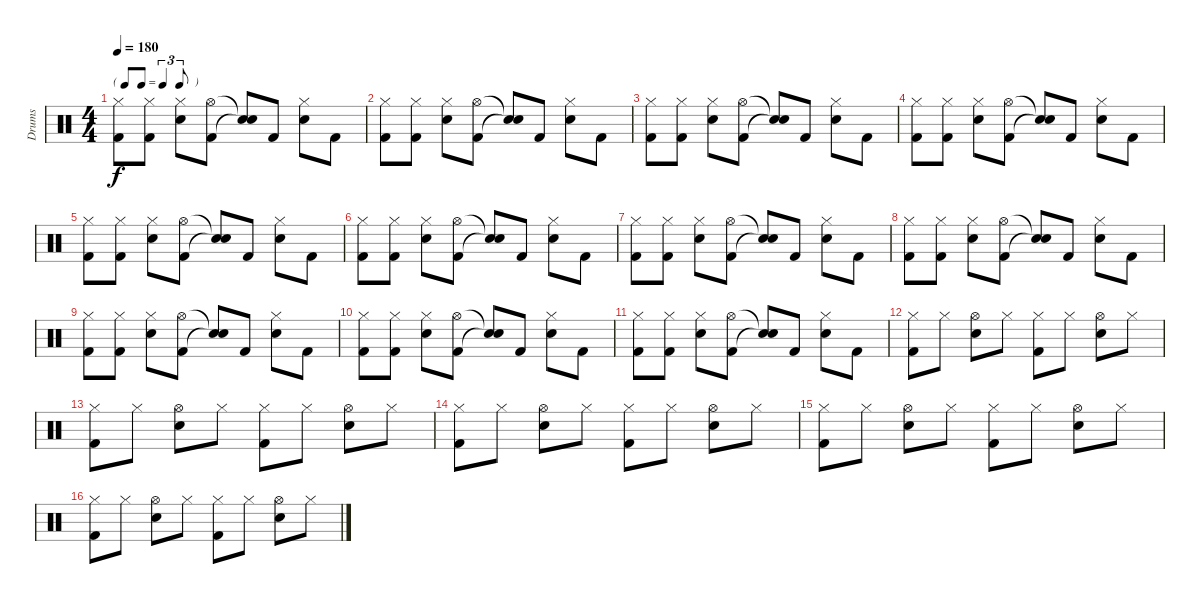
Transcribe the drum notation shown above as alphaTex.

\track ("Drums" "Drums") {instrument percussion}
\staff {score}
\articulation defaults
\ts (4 4)
\tf triplet8th
\tempo 180
\clef neutral
\ks c
("Hi-Hat (closed)" "Kick (hit) 2").8{dy f} ("Hi-Hat (closed)" "Kick (hit) 2").8 ("Hi-Hat (closed)" "Electric Snare (hit)").8 ("Hi-Hat (open)" "Kick (hit) 2").8 ("Snare (hit)"{t} "Snare (hit)"{t}).8 "Kick (hit) 2".8 ("Hi-Hat (closed)" "Electric Snare (hit)").8 "Kick (hit) 2".8 |
("Hi-Hat (closed)" "Kick (hit) 2").8 ("Hi-Hat (closed)" "Kick (hit) 2").8 ("Hi-Hat (closed)" "Electric Snare (hit)").8 ("Hi-Hat (open)" "Kick (hit) 2").8 ("Snare (hit)"{t} "Snare (hit)"{t}).8 "Kick (hit) 2".8 ("Hi-Hat (closed)" "Electric Snare (hit)").8 "Kick (hit) 2".8 |
("Hi-Hat (closed)" "Kick (hit) 2").8 ("Hi-Hat (closed)" "Kick (hit) 2").8 ("Hi-Hat (closed)" "Electric Snare (hit)").8 ("Hi-Hat (open)" "Kick (hit) 2").8 ("Snare (hit)"{t} "Snare (hit)"{t}).8 "Kick (hit) 2".8 ("Hi-Hat (closed)" "Electric Snare (hit)").8 "Kick (hit) 2".8 |
("Hi-Hat (closed)" "Kick (hit) 2").8 ("Hi-Hat (closed)" "Kick (hit) 2").8 ("Hi-Hat (closed)" "Electric Snare (hit)").8 ("Hi-Hat (open)" "Kick (hit) 2").8 ("Snare (hit)"{t} "Snare (hit)"{t}).8 "Kick (hit) 2".8 ("Hi-Hat (closed)" "Electric Snare (hit)").8 "Kick (hit) 2".8 |
("Hi-Hat (closed)" "Kick (hit) 2").8 ("Hi-Hat (closed)" "Kick (hit) 2").8 ("Hi-Hat (closed)" "Electric Snare (hit)").8 ("Hi-Hat (open)" "Kick (hit) 2").8 ("Snare (hit)"{t} "Snare (hit)"{t}).8 "Kick (hit) 2".8 ("Hi-Hat (closed)" "Electric Snare (hit)").8 "Kick (hit) 2".8 |
("Hi-Hat (closed)" "Kick (hit) 2").8 ("Hi-Hat (closed)" "Kick (hit) 2").8 ("Hi-Hat (closed)" "Electric Snare (hit)").8 ("Hi-Hat (open)" "Kick (hit) 2").8 ("Snare (hit)"{t} "Snare (hit)"{t}).8 "Kick (hit) 2".8 ("Hi-Hat (closed)" "Electric Snare (hit)").8 "Kick (hit) 2".8 |
("Hi-Hat (closed)" "Kick (hit) 2").8 ("Hi-Hat (closed)" "Kick (hit) 2").8 ("Hi-Hat (closed)" "Electric Snare (hit)").8 ("Hi-Hat (open)" "Kick (hit) 2").8 ("Snare (hit)"{t} "Snare (hit)"{t}).8 "Kick (hit) 2".8 ("Hi-Hat (closed)" "Electric Snare (hit)").8 "Kick (hit) 2".8 |
("Hi-Hat (closed)" "Kick (hit) 2").8 ("Hi-Hat (closed)" "Kick (hit) 2").8 ("Hi-Hat (closed)" "Electric Snare (hit)").8 ("Hi-Hat (open)" "Kick (hit) 2").8 ("Snare (hit)"{t} "Snare (hit)"{t}).8 "Kick (hit) 2".8 ("Hi-Hat (closed)" "Electric Snare (hit)").8 "Kick (hit) 2".8 |
("Hi-Hat (closed)" "Kick (hit) 2").8 ("Hi-Hat (closed)" "Kick (hit) 2").8 ("Hi-Hat (closed)" "Electric Snare (hit)").8 ("Hi-Hat (open)" "Kick (hit) 2").8 ("Snare (hit)"{t} "Snare (hit)"{t}).8 "Kick (hit) 2".8 ("Hi-Hat (closed)" "Electric Snare (hit)").8 "Kick (hit) 2".8 |
("Hi-Hat (closed)" "Kick (hit) 2").8 ("Hi-Hat (closed)" "Kick (hit) 2").8 ("Hi-Hat (closed)" "Electric Snare (hit)").8 ("Hi-Hat (open)" "Kick (hit) 2").8 ("Snare (hit)"{t} "Snare (hit)"{t}).8 "Kick (hit) 2".8 ("Hi-Hat (closed)" "Electric Snare (hit)").8 "Kick (hit) 2".8 |
("Hi-Hat (closed)" "Kick (hit) 2").8 ("Hi-Hat (closed)" "Kick (hit) 2").8 ("Hi-Hat (closed)" "Electric Snare (hit)").8 ("Hi-Hat (open)" "Kick (hit) 2").8 ("Snare (hit)"{t} "Snare (hit)"{t}).8 "Kick (hit) 2".8 ("Hi-Hat (closed)" "Electric Snare (hit)").8 "Kick (hit) 2".8 |
("Hi-Hat (closed)" "Kick (hit) 2").8 "Hi-Hat (closed)".8 ("Hi-Hat (open)" "Snare (hit) 2").8 "Hi-Hat (closed)".8 ("Hi-Hat (closed)" "Kick (hit) 2").8 "Hi-Hat (closed)".8 ("Hi-Hat (open)" "Snare (hit) 2").8 "Hi-Hat (closed)".8 |
("Hi-Hat (closed)" "Kick (hit) 2").8 "Hi-Hat (closed)".8 ("Hi-Hat (open)" "Snare (hit) 2").8 "Hi-Hat (closed)".8 ("Hi-Hat (closed)" "Kick (hit) 2").8 "Hi-Hat (closed)".8 ("Hi-Hat (open)" "Snare (hit) 2").8 "Hi-Hat (closed)".8 |
("Hi-Hat (closed)" "Kick (hit) 2").8 "Hi-Hat (closed)".8 ("Hi-Hat (open)" "Snare (hit) 2").8 "Hi-Hat (closed)".8 ("Hi-Hat (closed)" "Kick (hit) 2").8 "Hi-Hat (closed)".8 ("Hi-Hat (open)" "Snare (hit) 2").8 "Hi-Hat (closed)".8 |
("Hi-Hat (closed)" "Kick (hit) 2").8 "Hi-Hat (closed)".8 ("Hi-Hat (open)" "Snare (hit) 2").8 "Hi-Hat (closed)".8 ("Hi-Hat (closed)" "Kick (hit) 2").8 "Hi-Hat (closed)".8 ("Hi-Hat (open)" "Snare (hit) 2").8 "Hi-Hat (closed)".8 |
("Hi-Hat (closed)" "Kick (hit) 2").8 "Hi-Hat (closed)".8 ("Hi-Hat (open)" "Snare (hit) 2").8 "Hi-Hat (closed)".8 ("Hi-Hat (closed)" "Kick (hit) 2").8 "Hi-Hat (closed)".8 ("Hi-Hat (open)" "Snare (hit) 2").8 "Hi-Hat (closed)".8
